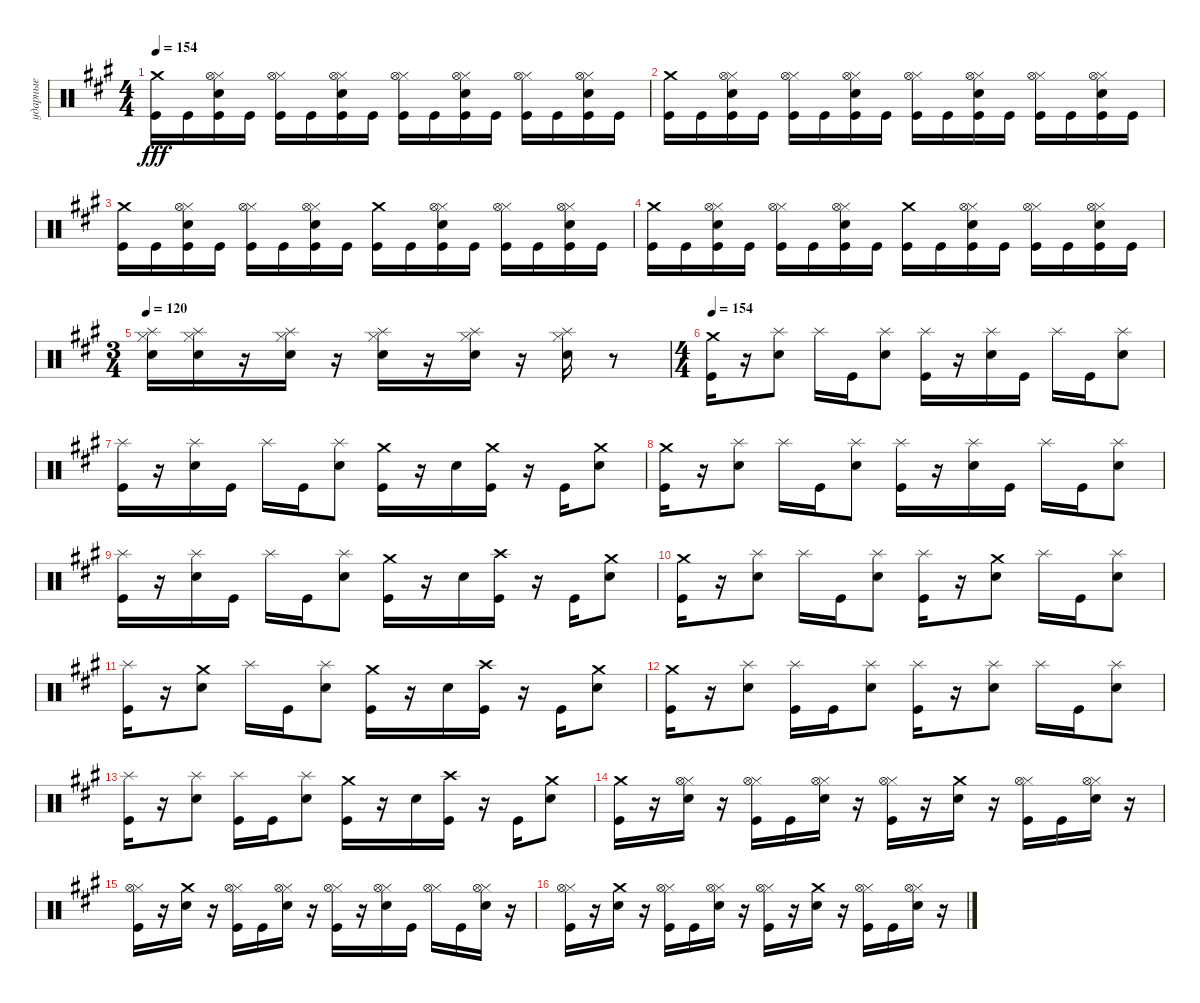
\track ("ударные" "ударные") {instrument percussion}
\staff {score}
\articulation defaults
\ts (4 4)
\tempo 154
\clef neutral
\ks f#minor
("Crash medium (hit)" "Kick (hit)").16{dy fff} "Kick (hit)".16 ("Snare (hit) 2" "Hi-Hat (closed)" "Kick (hit)" "Hi-Hat (open)").16 "Kick (hit)".16 ("Hi-Hat (closed)" "Kick (hit)" "Hi-Hat (open)").16 "Kick (hit)".16 ("Snare (hit) 2" "Hi-Hat (closed)" "Kick (hit)" "Hi-Hat (open)").16 "Kick (hit)".16 ("Hi-Hat (closed)" "Kick (hit)" "Hi-Hat (open)").16 "Kick (hit)".16 ("Snare (hit) 2" "Hi-Hat (closed)" "Kick (hit)" "Hi-Hat (open)").16 "Kick (hit)".16 ("Hi-Hat (closed)" "Kick (hit)" "Hi-Hat (open)").16 "Kick (hit)".16 ("Snare (hit) 2" "Hi-Hat (closed)" "Kick (hit)" "Hi-Hat (open)").16 "Kick (hit)".16 |
("Crash medium (hit)" "Kick (hit)").16 "Kick (hit)".16 ("Snare (hit) 2" "Hi-Hat (closed)" "Kick (hit)" "Hi-Hat (open)").16 "Kick (hit)".16 ("Hi-Hat (closed)" "Kick (hit)" "Hi-Hat (open)").16 "Kick (hit)".16 ("Snare (hit) 2" "Hi-Hat (closed)" "Kick (hit)" "Hi-Hat (open)").16 "Kick (hit)".16 ("Hi-Hat (closed)" "Kick (hit)" "Hi-Hat (open)").16 "Kick (hit)".16 ("Snare (hit) 2" "Hi-Hat (closed)" "Kick (hit)" "Hi-Hat (open)").16 "Kick (hit)".16 ("Hi-Hat (closed)" "Kick (hit)" "Hi-Hat (open)").16 "Kick (hit)".16 ("Snare (hit) 2" "Hi-Hat (closed)" "Kick (hit)" "Hi-Hat (open)").16 "Kick (hit)".16 |
("Crash medium (hit)" "Kick (hit)").16 "Kick (hit)".16 ("Snare (hit) 2" "Hi-Hat (closed)" "Kick (hit)" "Hi-Hat (open)").16 "Kick (hit)".16 ("Hi-Hat (closed)" "Kick (hit)" "Hi-Hat (open)").16 "Kick (hit)".16 ("Snare (hit) 2" "Hi-Hat (closed)" "Kick (hit)" "Hi-Hat (open)").16 "Kick (hit)".16 ("Crash medium (hit)" "Kick (hit)").16 "Kick (hit)".16 ("Snare (hit) 2" "Hi-Hat (closed)" "Kick (hit)" "Hi-Hat (open)").16 "Kick (hit)".16 ("Hi-Hat (closed)" "Kick (hit)" "Hi-Hat (open)").16 "Kick (hit)".16 ("Snare (hit) 2" "Hi-Hat (closed)" "Kick (hit)" "Hi-Hat (open)").16 "Kick (hit)".16 |
("Crash medium (hit)" "Kick (hit)").16 "Kick (hit)".16 ("Snare (hit) 2" "Hi-Hat (closed)" "Kick (hit)" "Hi-Hat (open)").16 "Kick (hit)".16 ("Hi-Hat (closed)" "Kick (hit)" "Hi-Hat (open)").16 "Kick (hit)".16 ("Snare (hit) 2" "Hi-Hat (closed)" "Kick (hit)" "Hi-Hat (open)").16 "Kick (hit)".16 ("Crash medium (hit)" "Kick (hit)").16 "Kick (hit)".16 ("Snare (hit) 2" "Hi-Hat (closed)" "Kick (hit)" "Hi-Hat (open)").16 "Kick (hit)".16 ("Hi-Hat (closed)" "Kick (hit)" "Hi-Hat (open)").16 "Kick (hit)".16 ("Snare (hit) 2" "Hi-Hat (closed)" "Kick (hit)" "Hi-Hat (open)").16 "Kick (hit)".16 |
\ts (3 4)
\tempo 120
("Snare (hit) 2" "Splash (hit)" "Hi-Hat (closed)").16 ("Snare (hit) 2" "Splash (hit)" "Hi-Hat (closed)").16 r.16 ("Snare (hit) 2" "Splash (hit)" "Hi-Hat (closed)").16 r.16 ("Snare (hit) 2" "Splash (hit)" "Hi-Hat (closed)").16 r.16 ("Snare (hit) 2" "Splash (hit)" "Hi-Hat (closed)").16 r.16 ("Snare (hit) 2" "Splash (hit)" "Hi-Hat (closed)").16 r.8 |
\ts (4 4)
\tempo 154
("Kick (hit)" "Crash medium (hit)").16 r.16 ("Snare (hit) 2" "Splash (hit)").8 "Splash (hit)".16 "Kick (hit)".16 ("Snare (hit) 2" "Splash (hit)").8 ("Kick (hit)" "Splash (hit)").16 r.16 ("Snare (hit) 2" "Splash (hit)").16 "Kick (hit)".16 "Splash (hit)".16 "Kick (hit)".16 ("Snare (hit) 2" "Splash (hit)").8 |
("Kick (hit)" "Splash (hit)").16 r.16 ("Snare (hit) 2" "Splash (hit)").16 "Kick (hit)".16 "Splash (hit)".16 "Kick (hit)".16 ("Snare (hit) 2" "Splash (hit)").8 ("Crash medium (hit)" "Kick (hit)").16 r.16 "Snare (hit) 2".16 ("Crash medium (hit)" "Kick (hit)").16 r.16 "Kick (hit)".16 ("Crash medium (hit)" "Snare (hit) 2").8 |
("Kick (hit)" "Crash medium (hit)").16 r.16 ("Snare (hit) 2" "Splash (hit)").8 "Splash (hit)".16 "Kick (hit)".16 ("Snare (hit) 2" "Splash (hit)").8 ("Kick (hit)" "Splash (hit)").16 r.16 ("Snare (hit) 2" "Splash (hit)").16 "Kick (hit)".16 "Splash (hit)".16 "Kick (hit)".16 ("Snare (hit) 2" "Splash (hit)").8 |
("Kick (hit)" "Splash (hit)").16 r.16 ("Snare (hit) 2" "Splash (hit)").16 "Kick (hit)".16 "Splash (hit)".16 "Kick (hit)".16 ("Snare (hit) 2" "Splash (hit)").8 ("Crash medium (hit)" "Kick (hit)").16 r.16 "Snare (hit) 2".16 ("Kick (hit)" "Crash high (hit)").16 r.16 "Kick (hit)".16 ("Crash medium (hit)" "Snare (hit) 2").8 |
("Kick (hit)" "Crash medium (hit)").16 r.16 ("Snare (hit) 2" "Splash (hit)").8 "Splash (hit)".16 "Kick (hit)".16 ("Snare (hit) 2" "Splash (hit)").8 ("Kick (hit)" "Splash (hit)").16 r.16 ("Crash medium (hit)" "Snare (hit) 2").8 "Splash (hit)".16 "Kick (hit)".16 ("Snare (hit) 2" "Splash (hit)").8 |
("Kick (hit)" "Splash (hit)").16 r.16 ("Crash medium (hit)" "Snare (hit) 2").8 "Splash (hit)".16 "Kick (hit)".16 ("Snare (hit) 2" "Splash (hit)").8 ("Crash medium (hit)" "Kick (hit)").16 r.16 "Snare (hit) 2".16 ("Kick (hit)" "Crash high (hit)").16 r.16 "Kick (hit)".16 ("Crash medium (hit)" "Snare (hit) 2").8 |
("Kick (hit)" "Crash medium (hit)").16 r.16 ("Snare (hit) 2" "Splash (hit)").8 ("Kick (hit)" "Splash (hit)").16 "Kick (hit)".16 ("Snare (hit) 2" "Splash (hit)").8 ("Kick (hit)" "Splash (hit)").16 r.16 ("Snare (hit) 2" "Splash (hit)").8 "Splash (hit)".16 "Kick (hit)".16 ("Snare (hit) 2" "Splash (hit)").8 |
("Kick (hit)" "Splash (hit)").16 r.16 ("Snare (hit) 2" "Splash (hit)").8 ("Kick (hit)" "Splash (hit)").16 "Kick (hit)".16 ("Snare (hit) 2" "Splash (hit)").8 ("Crash medium (hit)" "Kick (hit)").16 r.16 "Snare (hit) 2".16 ("Kick (hit)" "Crash high (hit)").16 r.16 "Kick (hit)".16 ("Crash medium (hit)" "Snare (hit) 2").8 |
("Crash medium (hit)" "Kick (hit)").16 r.16 ("Snare (hit) 2" "Hi-Hat (closed)" "Hi-Hat (open)").16 r.16 ("Kick (hit)" "Hi-Hat (closed)" "Hi-Hat (open)").16 "Kick (hit)".16 ("Snare (hit) 2" "Hi-Hat (closed)" "Hi-Hat (open)").16 r.16 ("Hi-Hat (closed)" "Kick (hit)" "Hi-Hat (open)").16 r.16 ("Crash medium (hit)" "Snare (hit) 2").16 r.16 ("Hi-Hat (closed)" "Kick (hit)" "Hi-Hat (open)").16 "Kick (hit)".16 ("Hi-Hat (closed)" "Snare (hit) 2" "Hi-Hat (open)").16 r.16 |
("Hi-Hat (closed)" "Kick (hit)" "Hi-Hat (open)").16 r.16 ("Crash medium (hit)" "Snare (hit) 2").16 r.16 ("Kick (hit)" "Hi-Hat (closed)" "Hi-Hat (open)").16 "Kick (hit)".16 ("Snare (hit) 2" "Hi-Hat (closed)" "Hi-Hat (open)").16 r.16 ("Hi-Hat (closed)" "Kick (hit)" "Hi-Hat (open)").16 r.16 ("Snare (hit) 2" "Hi-Hat (closed)" "Hi-Hat (open)").16 "Kick (hit)".16 ("Hi-Hat (closed)" "Hi-Hat (open)").16 "Kick (hit)".16 ("Hi-Hat (closed)" "Snare (hit) 2" "Hi-Hat (open)").16 r.16 |
("Hi-Hat (closed)" "Kick (hit)" "Hi-Hat (open)").16 r.16 ("Crash medium (hit)" "Snare (hit) 2").16 r.16 ("Kick (hit)" "Hi-Hat (closed)" "Hi-Hat (open)").16 "Kick (hit)".16 ("Snare (hit) 2" "Hi-Hat (closed)" "Hi-Hat (open)").16 r.16 ("Hi-Hat (closed)" "Kick (hit)" "Hi-Hat (open)").16 r.16 ("Crash medium (hit)" "Snare (hit) 2").16 r.16 ("Hi-Hat (closed)" "Kick (hit)" "Hi-Hat (open)").16 "Kick (hit)".16 ("Hi-Hat (closed)" "Snare (hit) 2" "Hi-Hat (open)").16 r.16
